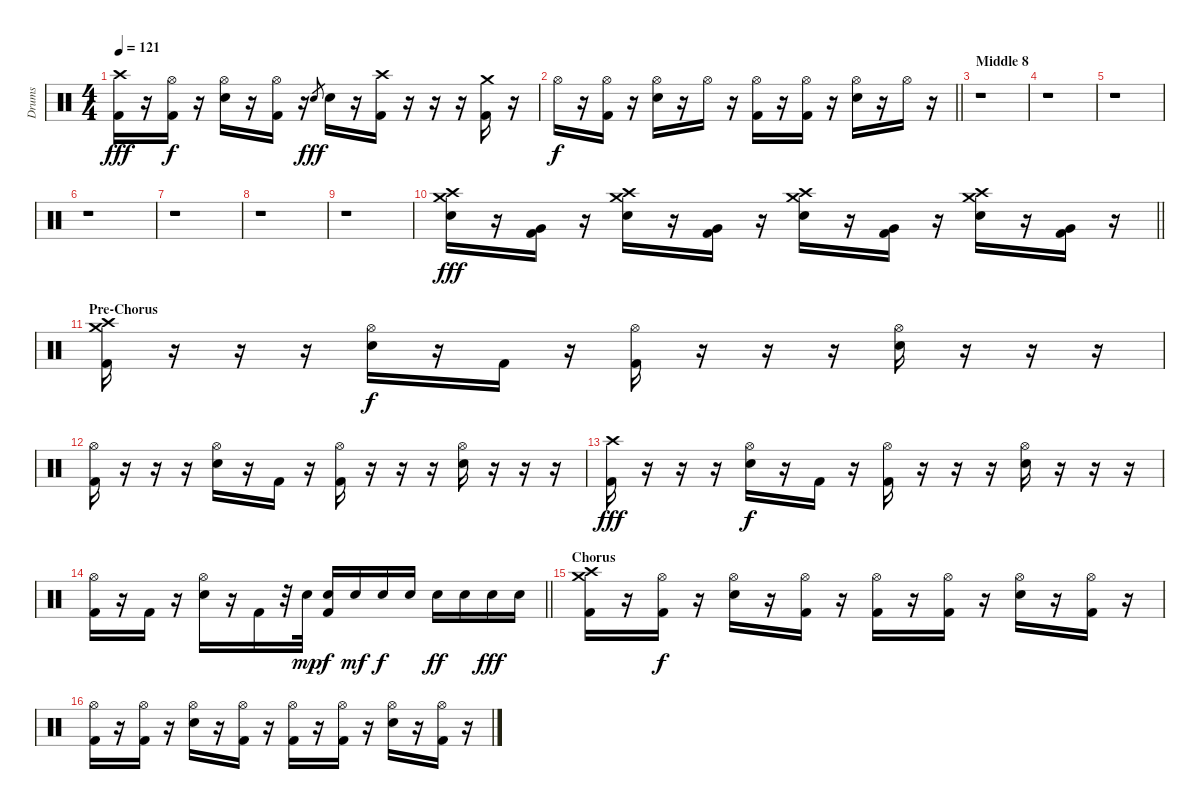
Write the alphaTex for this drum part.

\track ("Drums" "Drums") {instrument percussion}
\staff {score}
\articulation defaults
\ts (4 4)
\tempo 121
\clef neutral
\ks c
("Crash high (hit)" "Kick (hit) 2").16{dy fff} r.16 ("Hi-Hat (open)" "Kick (hit) 2").16{dy f} r.16 ("Hi-Hat (open)" "Electric Snare (hit)").16 r.16 ("Hi-Hat (open)" "Kick (hit) 2").16 r.16 "Electric Snare (hit)".8{gr dy fff} "Electric Snare (hit)".16 r.16 ("Crash high (hit)" "Kick (hit) 2").16 r.16 r.16 r.16 ("Crash medium (hit)" "Kick (hit) 2").16 r.16 |
\barLineRight lightlight "Hi-Hat (open)".16{dy f}
r.16 ("Hi-Hat (open)" "Kick (hit) 2").16 r.16 ("Hi-Hat (open)" "Electric Snare (hit)").16 r.16 "Hi-Hat (open)".16 r.16 ("Hi-Hat (open)" "Kick (hit) 2").16 r.16 ("Hi-Hat (open)" "Kick (hit) 2").16 r.16 ("Hi-Hat (open)" "Electric Snare (hit)").16 r.16 "Hi-Hat (open)".16 r.16 |
\section ("" "Middle 8")
r.1 |
r.1 |
r.1 |
r.1 |
r.1 |
r.1 |
r.1 |
\barLineRight lightlight
("Crash medium (hit)" "Crash high (hit)" "Electric Snare (hit)").16{dy fff} r.16 ("Very Low Tom (hit)" "Kick (hit) 2").16 r.16 ("Crash medium (hit)" "Crash high (hit)" "Electric Snare (hit)").16 r.16 ("Very Low Tom (hit)" "Kick (hit) 2").16 r.16 ("Crash medium (hit)" "Crash high (hit)" "Electric Snare (hit)").16 r.16 ("Very Low Tom (hit)" "Kick (hit) 2").16 r.16 ("Crash medium (hit)" "Crash high (hit)" "Electric Snare (hit)").16 r.16 ("Very Low Tom (hit)" "Kick (hit) 2").16 r.16 |
\section ("" "Pre-Chorus")
("Crash high (hit)" "Crash medium (hit)" "Kick (hit) 2").16{volume 14} r.16 r.16 r.16 ("Hi-Hat (open)" "Electric Snare (hit)").16{dy f} r.16 "Kick (hit) 2".16 r.16 ("Hi-Hat (open)" "Kick (hit) 2").16 r.16 r.16 r.16 ("Hi-Hat (open)" "Electric Snare (hit)").16 r.16 r.16 r.16 |
("Hi-Hat (open)" "Kick (hit) 2").16 r.16 r.16 r.16 ("Hi-Hat (open)" "Electric Snare (hit)").16 r.16 "Kick (hit) 2".16 r.16 ("Hi-Hat (open)" "Kick (hit) 2").16 r.16 r.16 r.16 ("Hi-Hat (open)" "Electric Snare (hit)").16 r.16 r.16 r.16 |
("Crash high (hit)" "Kick (hit) 2").16{dy fff} r.16 r.16 r.16 ("Hi-Hat (open)" "Electric Snare (hit)").16{dy f} r.16 "Kick (hit) 2".16 r.16 ("Hi-Hat (open)" "Kick (hit) 2").16 r.16 r.16 r.16 ("Hi-Hat (open)" "Electric Snare (hit)").16 r.16 r.16 r.16 |
\barLineRight lightlight
("Hi-Hat (open)" "Kick (hit) 2").16 r.16 "Kick (hit) 2".16 r.16 ("Hi-Hat (open)" "Electric Snare (hit)").16 r.16 "Kick (hit) 2".16 r.32 "Electric Snare (hit)".32{dy mp} ("Electric Snare (hit)" "Kick (hit) 2").16{dy f} "Electric Snare (hit)".16{dy mf} "Electric Snare (hit)".16{dy f} "Electric Snare (hit)".16 "Electric Snare (hit)".16{dy ff} "Electric Snare (hit)".16 "Electric Snare (hit)".16{dy fff} "Electric Snare (hit)".16 |
\section ("" "Chorus")
("Crash high (hit)" "Crash medium (hit)" "Kick (hit) 2").16 r.16 ("Hi-Hat (open)" "Kick (hit) 2").16{dy f} r.16 ("Hi-Hat (open)" "Electric Snare (hit)").16 r.16 ("Hi-Hat (open)" "Kick (hit) 2").16 r.16 ("Hi-Hat (open)" "Kick (hit) 2").16 r.16 ("Hi-Hat (open)" "Kick (hit) 2").16 r.16 ("Hi-Hat (open)" "Electric Snare (hit)").16 r.16 ("Hi-Hat (open)" "Kick (hit) 2").16 r.16 |
("Hi-Hat (open)" "Kick (hit) 2").16 r.16 ("Hi-Hat (open)" "Kick (hit) 2").16 r.16 ("Hi-Hat (open)" "Electric Snare (hit)").16 r.16 ("Hi-Hat (open)" "Kick (hit) 2").16 r.16 ("Hi-Hat (open)" "Kick (hit) 2").16 r.16 ("Hi-Hat (open)" "Kick (hit) 2").16 r.16 ("Hi-Hat (open)" "Electric Snare (hit)").16 r.16 ("Hi-Hat (open)" "Kick (hit) 2").16 r.16
